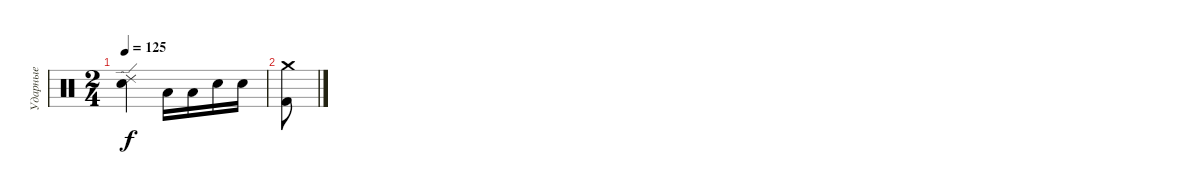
\track ("Ударные" "Ударные") {instrument percussion}
\staff {score}
\articulation defaults
\ts (2 4)
\tempo 125
\clef neutral
\ks c
("Ride (edge) 2" "Snare (hit) 2").4{dy f} "Low Tom (hit)".16 "Low Tom (hit)".16 "Snare (hit) 2".16 "Snare (hit) 2".16 |
("Crash medium (hit)" "Kick (hit) 2").8
